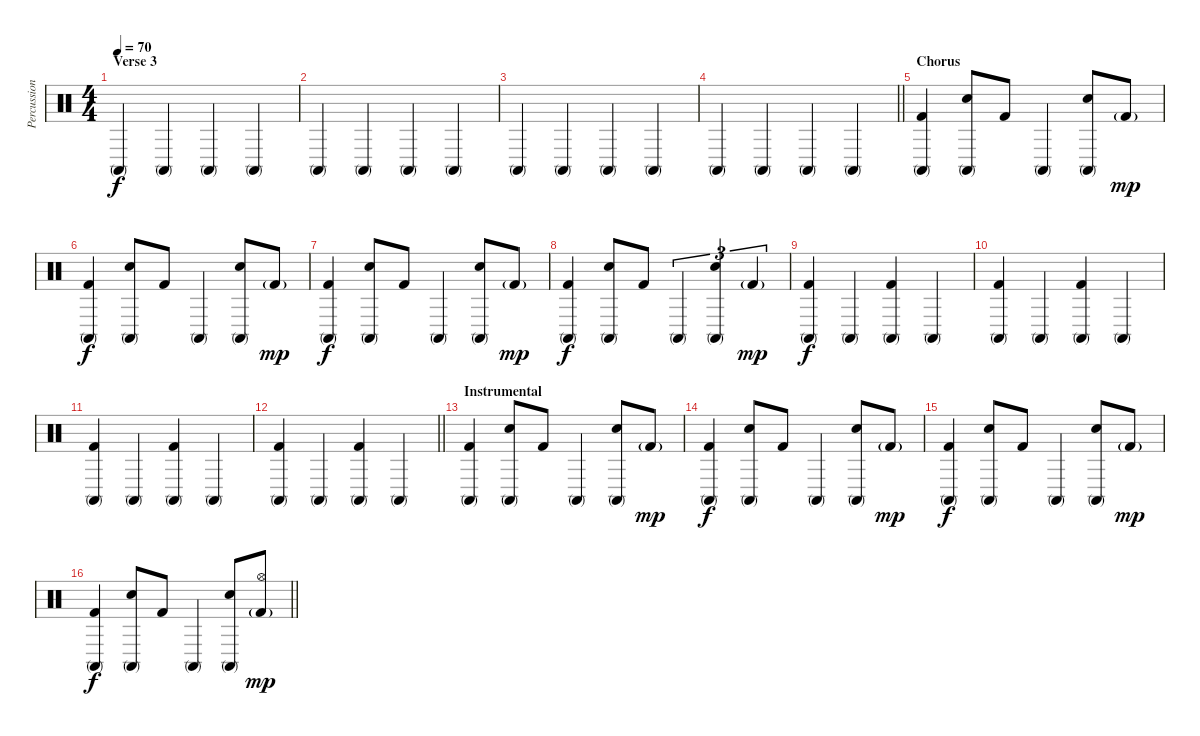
\track ("Percussion" "Percussion") {instrument percussion}
\staff {score}
\articulation defaults
\ts (4 4)
\section ("" "Verse 3")
\tempo 70
\clef neutral
\ks c "Conga high (mute)".4{dy f} "Conga high (mute)".4 "Conga high (mute)".4 "Conga high (mute)".4
|
"Conga high (mute)".4 "Conga high (mute)".4 "Conga high (mute)".4 "Conga high (mute)".4 |
"Conga high (mute)".4 "Conga high (mute)".4 "Conga high (mute)".4 "Conga high (mute)".4 |
\barLineRight lightlight "Conga high (mute)".4 "Conga high (mute)".4 "Conga high (mute)".4 "Conga high (mute)".4
|
\section ("" "Chorus")
("Conga high (mute)" "Kick (hit) 2").4 ("Conga high (mute)" "Hand Clap (hit)").8 "Kick (hit) 2".8 "Conga high (mute)".4 ("Conga high (mute)" "Hand Clap (hit)").8 "Kick (hit) 2"{g}.8{dy mp} |
("Conga high (mute)" "Kick (hit) 2").4{dy f} ("Conga high (mute)" "Hand Clap (hit)").8 "Kick (hit) 2".8 "Conga high (mute)".4 ("Conga high (mute)" "Hand Clap (hit)").8 "Kick (hit) 2"{g}.8{dy mp} |
("Conga high (mute)" "Kick (hit) 2").4{dy f} ("Conga high (mute)" "Hand Clap (hit)").8 "Kick (hit) 2".8 "Conga high (mute)".4 ("Conga high (mute)" "Hand Clap (hit)").8 "Kick (hit) 2"{g}.8{dy mp} |
("Conga high (mute)" "Kick (hit) 2").4{dy f} ("Conga high (mute)" "Hand Clap (hit)").8 "Kick (hit) 2".8 "Conga high (mute)".4{tu (3 2)} ("Conga high (mute)" "Hand Clap (hit)").4{tu (3 2)} "Kick (hit) 2"{g}.4{tu (3 2) dy mp} |
("Conga high (mute)" "Kick (hit) 2").4{dy f} "Conga high (mute)".4 ("Conga high (mute)" "Kick (hit) 2").4 "Conga high (mute)".4 |
("Conga high (mute)" "Kick (hit) 2").4 "Conga high (mute)".4 ("Conga high (mute)" "Kick (hit) 2").4 "Conga high (mute)".4 |
("Conga high (mute)" "Kick (hit) 2").4 "Conga high (mute)".4 ("Conga high (mute)" "Kick (hit) 2").4 "Conga high (mute)".4 |
\barLineRight lightlight
("Conga high (mute)" "Kick (hit) 2").4 "Conga high (mute)".4 ("Conga high (mute)" "Kick (hit) 2").4 "Conga high (mute)".4 |
\section ("" "Instrumental")
("Conga high (mute)" "Kick (hit) 2").4 ("Conga high (mute)" "Hand Clap (hit)").8 "Kick (hit) 2".8 "Conga high (mute)".4 ("Conga high (mute)" "Hand Clap (hit)").8 "Kick (hit) 2"{g}.8{dy mp} |
("Conga high (mute)" "Kick (hit) 2").4{dy f} ("Conga high (mute)" "Hand Clap (hit)").8 "Kick (hit) 2".8 "Conga high (mute)".4 ("Conga high (mute)" "Hand Clap (hit)").8 "Kick (hit) 2"{g}.8{dy mp} |
("Conga high (mute)" "Kick (hit) 2").4{dy f} ("Conga high (mute)" "Hand Clap (hit)").8 "Kick (hit) 2".8 "Conga high (mute)".4 ("Conga high (mute)" "Hand Clap (hit)").8 "Kick (hit) 2"{g}.8{dy mp} |
\barLineRight lightlight
("Conga high (mute)" "Kick (hit) 2").4{dy f} ("Conga high (mute)" "Hand Clap (hit)").8 "Kick (hit) 2".8 "Conga high (mute)".4 ("Conga high (mute)" "Hand Clap (hit)").8 ("Hi-Hat (open)" "Kick (hit) 2"{g}).8{dy mp}
